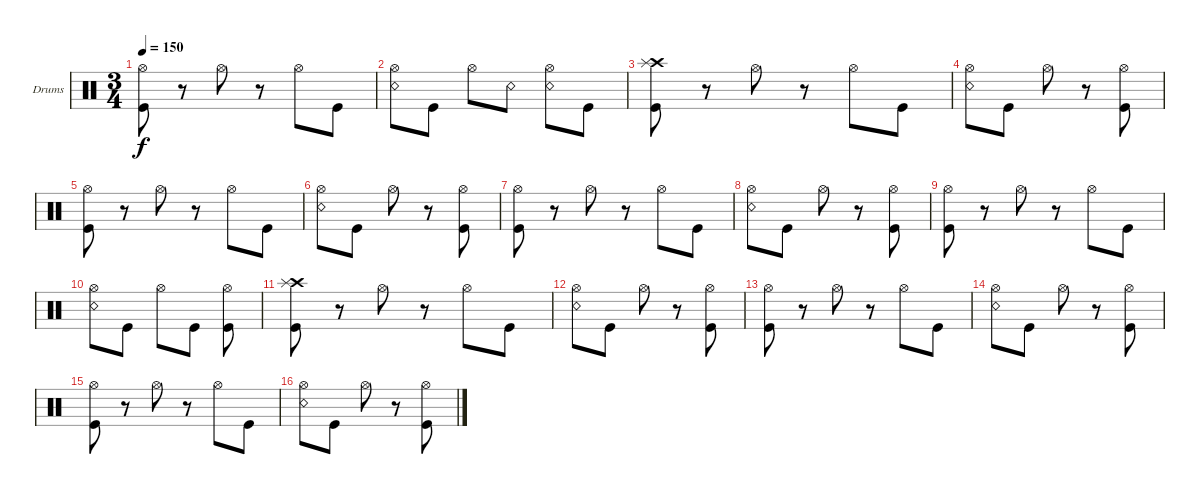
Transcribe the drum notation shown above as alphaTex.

\defaultSystemsLayout 4
\bracketExtendMode groupsimilarinstruments
\firstSystemTrackNameOrientation horizontal
\otherSystemsTrackNameOrientation horizontal
\track ("Scott" "Drums") {instrument percussion}
\staff {score}
\articulation defaults
\ts (3 4)
\tempo 150
\clef neutral
\scale
0.333333
\ks c
("Kick (hit)" "Hi-Hat (open)").8{dy f} r.8 "Hi-Hat (open)".8 r.8 "Hi-Hat (open)".8 "Kick (hit)".8 |
\scale
0.333333 ("Snare (rim shot)" "Hi-Hat (open)").8 "Kick (hit)".8 "Hi-Hat (open)".8 "Snare (rim shot)".8 ("Hi-Hat (open)" "Snare (rim shot)").8 "Kick (hit)".8 |
\scale
0.333333 ("Kick (hit)" "Crash high (hit)" "Splash (hit)").8 r.8 "Hi-Hat (open)".8 r.8 "Hi-Hat (open)".8 "Kick (hit)".8 |
\scale
0.333333 ("Snare (rim shot)" "Hi-Hat (open)").8 "Kick (hit)".8 "Hi-Hat (open)".8 r.8 ("Kick (hit)" "Hi-Hat (open)").8 |
\scale
0.333333 ("Kick (hit)" "Hi-Hat (open)").8 r.8 "Hi-Hat (open)".8 r.8 "Hi-Hat (open)".8 "Kick (hit)".8 |
\scale
0.333333 ("Snare (rim shot)" "Hi-Hat (open)").8 "Kick (hit)".8 "Hi-Hat (open)".8 r.8 ("Kick (hit)" "Hi-Hat (open)").8 |
\scale
0.333333 ("Kick (hit)" "Hi-Hat (open)").8 r.8 "Hi-Hat (open)".8 r.8 "Hi-Hat (open)".8 "Kick (hit)".8 |
\scale
0.333333 ("Snare (rim shot)" "Hi-Hat (open)").8 "Kick (hit)".8 "Hi-Hat (open)".8 r.8 ("Kick (hit)" "Hi-Hat (open)").8 |
\scale
0.333333 ("Kick (hit)" "Hi-Hat (open)").8 r.8 "Hi-Hat (open)".8 r.8 "Hi-Hat (open)".8 "Kick (hit)".8 |
\scale
0.333333 ("Snare (rim shot)" "Hi-Hat (open)").8 "Kick (hit)".8 "Hi-Hat (open)".8 "Kick (hit)".8 ("Kick (hit)" "Hi-Hat (open)").8 |
\scale
0.333333 ("Kick (hit)" "Crash high (hit)" "Splash (hit)").8 r.8 "Hi-Hat (open)".8 r.8 "Hi-Hat (open)".8 "Kick (hit)".8 |
\scale
0.333333 ("Snare (rim shot)" "Hi-Hat (open)").8 "Kick (hit)".8 "Hi-Hat (open)".8 r.8 ("Kick (hit)" "Hi-Hat (open)").8 |
\scale
0.333333 ("Kick (hit)" "Hi-Hat (open)").8 r.8 "Hi-Hat (open)".8 r.8 "Hi-Hat (open)".8 "Kick (hit)".8 |
\scale
0.333333 ("Snare (rim shot)" "Hi-Hat (open)").8 "Kick (hit)".8 "Hi-Hat (open)".8 r.8 ("Kick (hit)" "Hi-Hat (open)").8 |
\scale
0.333333 ("Kick (hit)" "Hi-Hat (open)").8 r.8 "Hi-Hat (open)".8 r.8 "Hi-Hat (open)".8 "Kick (hit)".8 |
\scale
0.333333 ("Snare (rim shot)" "Hi-Hat (open)").8 "Kick (hit)".8 "Hi-Hat (open)".8 r.8 ("Kick (hit)" "Hi-Hat (open)").8
